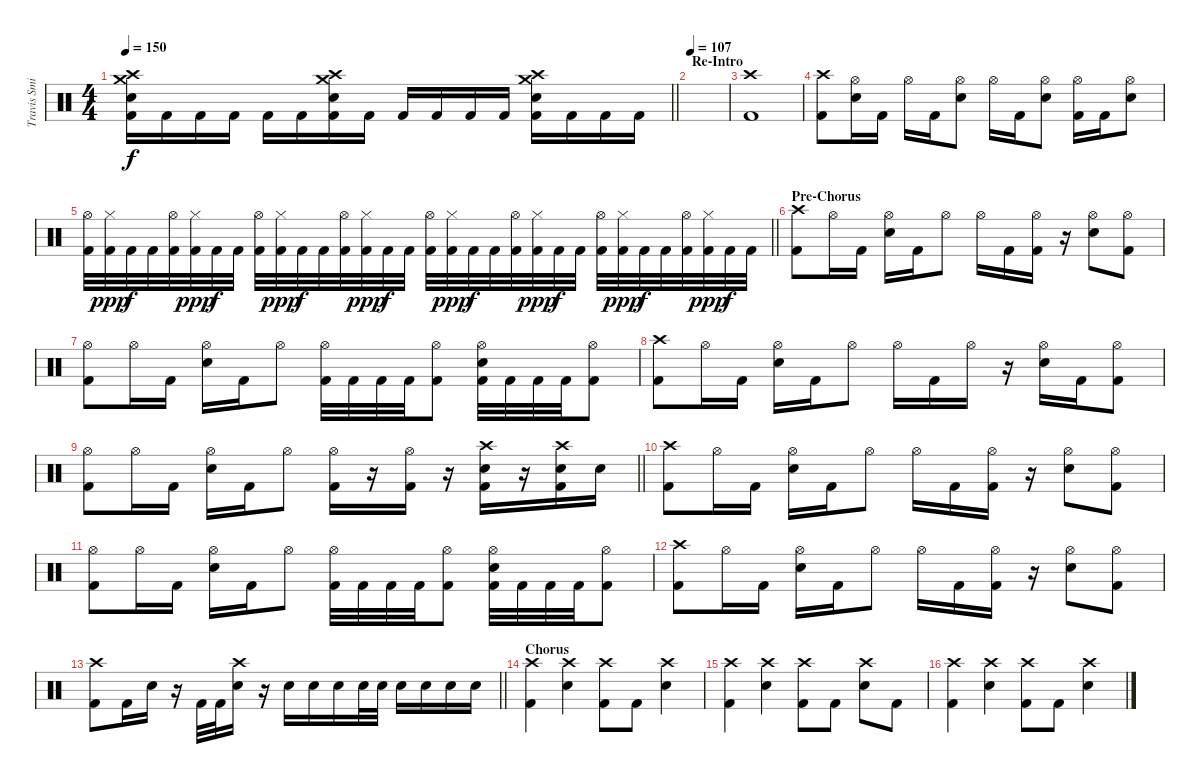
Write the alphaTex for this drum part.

\track ("Travis Smith" "Travis Smi") {instrument percussion}
\staff {score}
\articulation defaults
\ts (4 4)
\tempo 150
\clef neutral
\barLineRight lightlight
\ks c
("Crash high (hit)" "Crash medium (hit)" "Electric Snare (hit)" "Kick (hit) 2").16{dy f} "Kick (hit) 2".16 "Kick (hit) 2".16 "Kick (hit) 2".16 "Kick (hit) 2".16 "Kick (hit) 2".16 ("Crash high (hit)" "Crash medium (hit)" "Electric Snare (hit)" "Kick (hit) 2").16 "Kick (hit) 2".16 "Kick (hit) 2".16 "Kick (hit) 2".16 "Kick (hit) 2".16 "Kick (hit) 2".16 ("Crash high (hit)" "Crash medium (hit)" "Electric Snare (hit)" "Kick (hit) 2").16 "Kick (hit) 2".16 "Kick (hit) 2".16 "Kick (hit) 2".16 |
\section ("" "Re-Intro")
\tempo 107
|
("Crash high (hit)" "Kick (hit) 2").1 |
("Crash high (hit)" "Kick (hit) 2").8 ("Hi-Hat (open)" "Electric Snare (hit)").16 "Kick (hit) 2".16 "Hi-Hat (open)".16 "Kick (hit) 2".16 ("Hi-Hat (open)" "Electric Snare (hit)").8 "Hi-Hat (open)".16 "Kick (hit) 2".16 ("Hi-Hat (open)" "Electric Snare (hit)").8 ("Hi-Hat (open)" "Kick (hit) 2").16 "Kick (hit) 2".16 ("Hi-Hat (open)" "Electric Snare (hit)").8 |
\barLineRight lightlight
("Hi-Hat (open)" "Kick (hit) 2").32 ("Hi-Hat (closed)" "Kick (hit) 2").32{dy ppp} "Kick (hit) 2".32{dy f} "Kick (hit) 2".32 ("Hi-Hat (open)" "Kick (hit) 2").32 ("Hi-Hat (closed)" "Kick (hit) 2").32{dy ppp} "Kick (hit) 2".32{dy f} "Kick (hit) 2".32 ("Hi-Hat (open)" "Kick (hit) 2").32 ("Hi-Hat (closed)" "Kick (hit) 2").32{dy ppp} "Kick (hit) 2".32{dy f} "Kick (hit) 2".32 ("Hi-Hat (open)" "Kick (hit) 2").32 ("Hi-Hat (closed)" "Kick (hit) 2").32{dy ppp} "Kick (hit) 2".32{dy f} "Kick (hit) 2".32 ("Hi-Hat (open)" "Kick (hit) 2").32 ("Hi-Hat (closed)" "Kick (hit) 2").32{dy ppp} "Kick (hit) 2".32{dy f} "Kick (hit) 2".32 ("Hi-Hat (open)" "Kick (hit) 2").32 ("Hi-Hat (closed)" "Kick (hit) 2").32{dy ppp} "Kick (hit) 2".32{dy f} "Kick (hit) 2".32 ("Hi-Hat (open)" "Kick (hit) 2").32 ("Hi-Hat (closed)" "Kick (hit) 2").32{dy ppp} "Kick (hit) 2".32{dy f} "Kick (hit) 2".32 ("Hi-Hat (open)" "Kick (hit) 2").32 ("Hi-Hat (closed)" "Kick (hit) 2").32{dy ppp} "Kick (hit) 2".32{dy f} "Kick (hit) 2".32 |
\section ("" "Pre-Chorus")
("Crash high (hit)" "Kick (hit) 2").8 "Hi-Hat (open)".16 "Kick (hit) 2".16 ("Hi-Hat (open)" "Electric Snare (hit)").16 "Kick (hit) 2".16 "Hi-Hat (open)".8 "Hi-Hat (open)".16 "Kick (hit) 2".16 ("Hi-Hat (open)" "Kick (hit) 2").16 r.16 ("Hi-Hat (open)" "Electric Snare (hit)").8 ("Hi-Hat (open)" "Kick (hit) 2").8 |
("Hi-Hat (open)" "Kick (hit) 2").8 "Hi-Hat (open)".16 "Kick (hit) 2".16 ("Hi-Hat (open)" "Electric Snare (hit)").16 "Kick (hit) 2".16 "Hi-Hat (open)".8 ("Hi-Hat (open)" "Kick (hit) 2").32 "Kick (hit) 2".32 "Kick (hit) 2".32 "Kick (hit) 2".32 ("Hi-Hat (open)" "Kick (hit) 2").8 ("Hi-Hat (open)" "Electric Snare (hit)" "Kick (hit) 2").32 "Kick (hit) 2".32 "Kick (hit) 2".32 "Kick (hit) 2".32 ("Hi-Hat (open)" "Kick (hit) 2").8 |
("Crash high (hit)" "Kick (hit) 2").8 "Hi-Hat (open)".16 "Kick (hit) 2".16 ("Hi-Hat (open)" "Electric Snare (hit)").16 "Kick (hit) 2".16 "Hi-Hat (open)".8 "Hi-Hat (open)".16 "Kick (hit) 2".16 "Hi-Hat (open)".16 r.16 ("Hi-Hat (open)" "Electric Snare (hit)").16 "Kick (hit) 2".16 ("Hi-Hat (open)" "Kick (hit) 2").8 |
\barLineRight lightlight
("Hi-Hat (open)" "Kick (hit) 2").8 "Hi-Hat (open)".16 "Kick (hit) 2".16 ("Hi-Hat (open)" "Electric Snare (hit)").16 "Kick (hit) 2".16 "Hi-Hat (open)".8 ("Hi-Hat (open)" "Kick (hit) 2").16 r.16 ("Hi-Hat (open)" "Kick (hit) 2").16 r.16 ("Crash high (hit)" "Electric Snare (hit)" "Kick (hit) 2").16 r.16 ("Crash high (hit)" "Electric Snare (hit)" "Kick (hit) 2").16 "Electric Snare (hit)".16 |
("Crash high (hit)" "Kick (hit) 2").8 "Hi-Hat (open)".16 "Kick (hit) 2".16 ("Hi-Hat (open)" "Electric Snare (hit)").16 "Kick (hit) 2".16 "Hi-Hat (open)".8 "Hi-Hat (open)".16 "Kick (hit) 2".16 ("Hi-Hat (open)" "Kick (hit) 2").16 r.16 ("Hi-Hat (open)" "Electric Snare (hit)").8 ("Hi-Hat (open)" "Kick (hit) 2").8 |
("Hi-Hat (open)" "Kick (hit) 2").8 "Hi-Hat (open)".16 "Kick (hit) 2".16 ("Hi-Hat (open)" "Electric Snare (hit)").16 "Kick (hit) 2".16 "Hi-Hat (open)".8 ("Hi-Hat (open)" "Kick (hit) 2").32 "Kick (hit) 2".32 "Kick (hit) 2".32 "Kick (hit) 2".32 ("Hi-Hat (open)" "Kick (hit) 2").8 ("Hi-Hat (open)" "Electric Snare (hit)" "Kick (hit) 2").32 "Kick (hit) 2".32 "Kick (hit) 2".32 "Kick (hit) 2".32 ("Hi-Hat (open)" "Kick (hit) 2").8 |
("Crash high (hit)" "Kick (hit) 2").8 "Hi-Hat (open)".16 "Kick (hit) 2".16 ("Hi-Hat (open)" "Electric Snare (hit)").16 "Kick (hit) 2".16 "Hi-Hat (open)".8 "Hi-Hat (open)".16 "Kick (hit) 2".16 ("Hi-Hat (open)" "Kick (hit) 2").16 r.16 ("Hi-Hat (open)" "Electric Snare (hit)").8 ("Hi-Hat (open)" "Kick (hit) 2").8 |
\barLineRight lightlight
("Crash high (hit)" "Kick (hit) 2").8 "Kick (hit) 2".16 "Electric Snare (hit)".16 r.16 "Kick (hit) 2".32 "Kick (hit) 2".32 ("Crash high (hit)" "Electric Snare (hit)").16 r.16 "Electric Snare (hit)".16 "Electric Snare (hit)".16 "Electric Snare (hit)".16 "Electric Snare (hit)".32 "Electric Snare (hit)".32 "Electric Snare (hit)".16 "Electric Snare (hit)".16 "Electric Snare (hit)".16 "Electric Snare (hit)".16 |
\section ("" "Chorus")
("Crash high (hit)" "Kick (hit) 2").4 ("Crash high (hit)" "Electric Snare (hit)").4 ("Crash high (hit)" "Kick (hit) 2").8 "Kick (hit) 2".8 ("Crash high (hit)" "Electric Snare (hit)").4 |
("Crash high (hit)" "Kick (hit) 2").4 ("Crash high (hit)" "Electric Snare (hit)").4 ("Crash high (hit)" "Kick (hit) 2").8 "Kick (hit) 2".8 ("Crash high (hit)" "Electric Snare (hit)").8 "Kick (hit) 2".8 |
("Crash high (hit)" "Kick (hit) 2").4 ("Crash high (hit)" "Electric Snare (hit)").4 ("Crash high (hit)" "Kick (hit) 2").8 "Kick (hit) 2".8 ("Crash high (hit)" "Electric Snare (hit)").4
